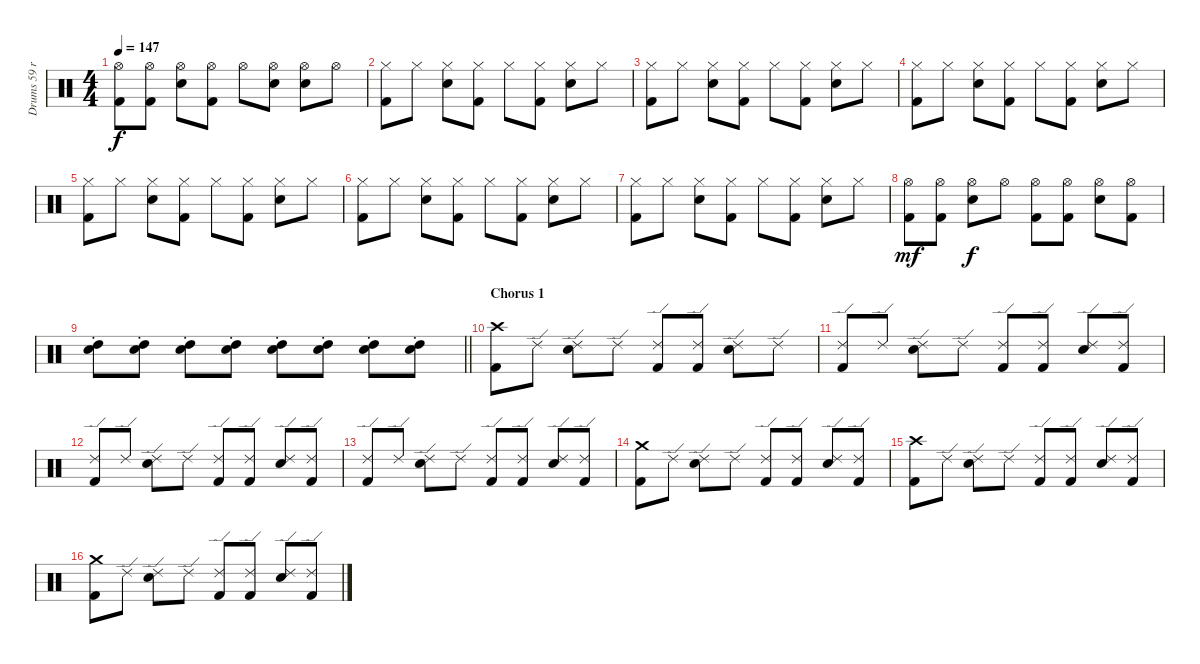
\track ("Drums 59 ride" "Drums 59 r") {mute instrument percussion}
\staff {score}
\articulation defaults
\ts (4 4)
\tempo 147
\clef neutral
\ks c
("Hi-Hat (open)" "Kick (hit) 2").8{dy f} ("Hi-Hat (open)" "Kick (hit) 2").8 ("Hi-Hat (open)" "Snare (hit) 2").8 ("Hi-Hat (open)" "Kick (hit) 2").8 "Hi-Hat (open)".8 ("Hi-Hat (open)" "Snare (hit) 2").8 ("Hi-Hat (open)" "Snare (hit) 2").8 "Hi-Hat (open)".8 |
("Hi-Hat (closed)" "Kick (hit) 2").8 "Hi-Hat (closed)".8 ("Hi-Hat (closed)" "Snare (hit) 2").8 ("Hi-Hat (closed)" "Kick (hit) 2").8 "Hi-Hat (closed)".8 ("Hi-Hat (closed)" "Kick (hit) 2").8 ("Hi-Hat (closed)" "Snare (hit) 2").8 "Hi-Hat (closed)".8 |
("Hi-Hat (closed)" "Kick (hit) 2").8 "Hi-Hat (closed)".8 ("Hi-Hat (closed)" "Snare (hit) 2").8 ("Hi-Hat (closed)" "Kick (hit) 2").8 "Hi-Hat (closed)".8 ("Hi-Hat (closed)" "Kick (hit) 2").8 ("Hi-Hat (closed)" "Snare (hit) 2").8 "Hi-Hat (closed)".8 |
("Hi-Hat (closed)" "Kick (hit) 2").8 "Hi-Hat (closed)".8 ("Hi-Hat (closed)" "Snare (hit) 2").8 ("Hi-Hat (closed)" "Kick (hit) 2").8 "Hi-Hat (closed)".8 ("Hi-Hat (closed)" "Kick (hit) 2").8 ("Hi-Hat (closed)" "Snare (hit) 2").8 "Hi-Hat (closed)".8 |
("Hi-Hat (closed)" "Kick (hit) 2").8 "Hi-Hat (closed)".8 ("Hi-Hat (closed)" "Snare (hit) 2").8 ("Hi-Hat (closed)" "Kick (hit) 2").8 "Hi-Hat (closed)".8 ("Hi-Hat (closed)" "Kick (hit) 2").8 ("Hi-Hat (closed)" "Snare (hit) 2").8 "Hi-Hat (closed)".8 |
("Hi-Hat (closed)" "Kick (hit) 2").8 "Hi-Hat (closed)".8 ("Hi-Hat (closed)" "Snare (hit) 2").8 ("Hi-Hat (closed)" "Kick (hit) 2").8 "Hi-Hat (closed)".8 ("Hi-Hat (closed)" "Kick (hit) 2").8 ("Hi-Hat (closed)" "Snare (hit) 2").8 "Hi-Hat (closed)".8 |
("Hi-Hat (closed)" "Kick (hit) 2").8 "Hi-Hat (closed)".8 ("Hi-Hat (closed)" "Snare (hit) 2").8 ("Hi-Hat (closed)" "Kick (hit) 2").8 "Hi-Hat (closed)".8 ("Hi-Hat (closed)" "Kick (hit) 2").8 ("Hi-Hat (closed)" "Snare (hit) 2").8 "Hi-Hat (closed)".8 |
("Hi-Hat (open)" "Kick (hit) 2").8{dy mf} ("Hi-Hat (open)" "Kick (hit) 2").8 ("Hi-Hat (open)" "Snare (hit) 2").8{dy f} "Hi-Hat (open)".8 ("Hi-Hat (open)" "Kick (hit) 2").8 ("Hi-Hat (open)" "Kick (hit) 2").8 ("Hi-Hat (open)" "Snare (hit) 2").8 ("Hi-Hat (open)" "Kick (hit) 2").8 |
\barLineRight lightlight
("High Tom (hit)" "Snare (hit) 2"{st}).8 ("High Tom (hit)" "Snare (hit) 2"{st}).8 ("High Tom (hit)" "Snare (hit) 2"{st}).8 ("High Tom (hit)" "Snare (hit) 2"{st}).8 ("High Tom (hit)" "Snare (hit) 2"{st}).8 ("High Tom (hit)" "Snare (hit) 2"{st}).8 ("High Tom (hit)" "Snare (hit) 2"{st}).8 ("High Tom (hit)" "Snare (hit) 2"{st}).8 |
\section ("" "Chorus 1")
("Crash high (hit)" "Kick (hit) 2").8 "Ride (edge) 2".8 ("Ride (edge) 2" "Snare (hit) 2").8 "Ride (edge) 2".8 ("Ride (edge) 2" "Kick (hit) 2").8 ("Ride (edge) 2" "Kick (hit) 2").8 ("Ride (edge) 2" "Snare (hit) 2").8 "Ride (edge) 2".8 |
("Ride (edge) 2" "Kick (hit) 2").8 "Ride (edge) 2".8 ("Ride (edge) 2" "Snare (hit) 2").8 "Ride (edge) 2".8 ("Ride (edge) 2" "Kick (hit) 2").8 ("Ride (edge) 2" "Kick (hit) 2").8 ("Ride (edge) 2" "Snare (hit) 2").8 ("Ride (edge) 2" "Kick (hit) 2").8 |
("Ride (edge) 2" "Kick (hit) 2").8 "Ride (edge) 2".8 ("Ride (edge) 2" "Snare (hit) 2").8 "Ride (edge) 2".8 ("Ride (edge) 2" "Kick (hit) 2").8 ("Ride (edge) 2" "Kick (hit) 2").8 ("Ride (edge) 2" "Snare (hit) 2").8 ("Ride (edge) 2" "Kick (hit) 2").8 |
("Ride (edge) 2" "Kick (hit) 2").8 "Ride (edge) 2".8 ("Ride (edge) 2" "Snare (hit) 2").8 "Ride (edge) 2".8 ("Ride (edge) 2" "Kick (hit) 2").8 ("Ride (edge) 2" "Kick (hit) 2").8 ("Ride (edge) 2" "Snare (hit) 2").8 ("Ride (edge) 2" "Kick (hit) 2").8 |
("Crash medium (hit)" "Kick (hit) 2").8 "Ride (edge) 2".8 ("Ride (edge) 2" "Snare (hit) 2").8 "Ride (edge) 2".8 ("Ride (edge) 2" "Kick (hit) 2").8 ("Ride (edge) 2" "Kick (hit) 2").8 ("Ride (edge) 2" "Snare (hit) 2").8 ("Ride (edge) 2" "Kick (hit) 2").8 |
("Crash high (hit)" "Kick (hit) 2").8 "Ride (edge) 2".8 ("Ride (edge) 2" "Snare (hit) 2").8 "Ride (edge) 2".8 ("Ride (edge) 2" "Kick (hit) 2").8 ("Ride (edge) 2" "Kick (hit) 2").8 ("Ride (edge) 2" "Snare (hit) 2").8 ("Ride (edge) 2" "Kick (hit) 2").8 |
("Crash medium (hit)" "Kick (hit) 2").8 "Ride (edge) 2".8 ("Ride (edge) 2" "Snare (hit) 2").8 "Ride (edge) 2".8 ("Ride (edge) 2" "Kick (hit) 2").8 ("Ride (edge) 2" "Kick (hit) 2").8 ("Ride (edge) 2" "Snare (hit) 2").8 ("Ride (edge) 2" "Kick (hit) 2").8
